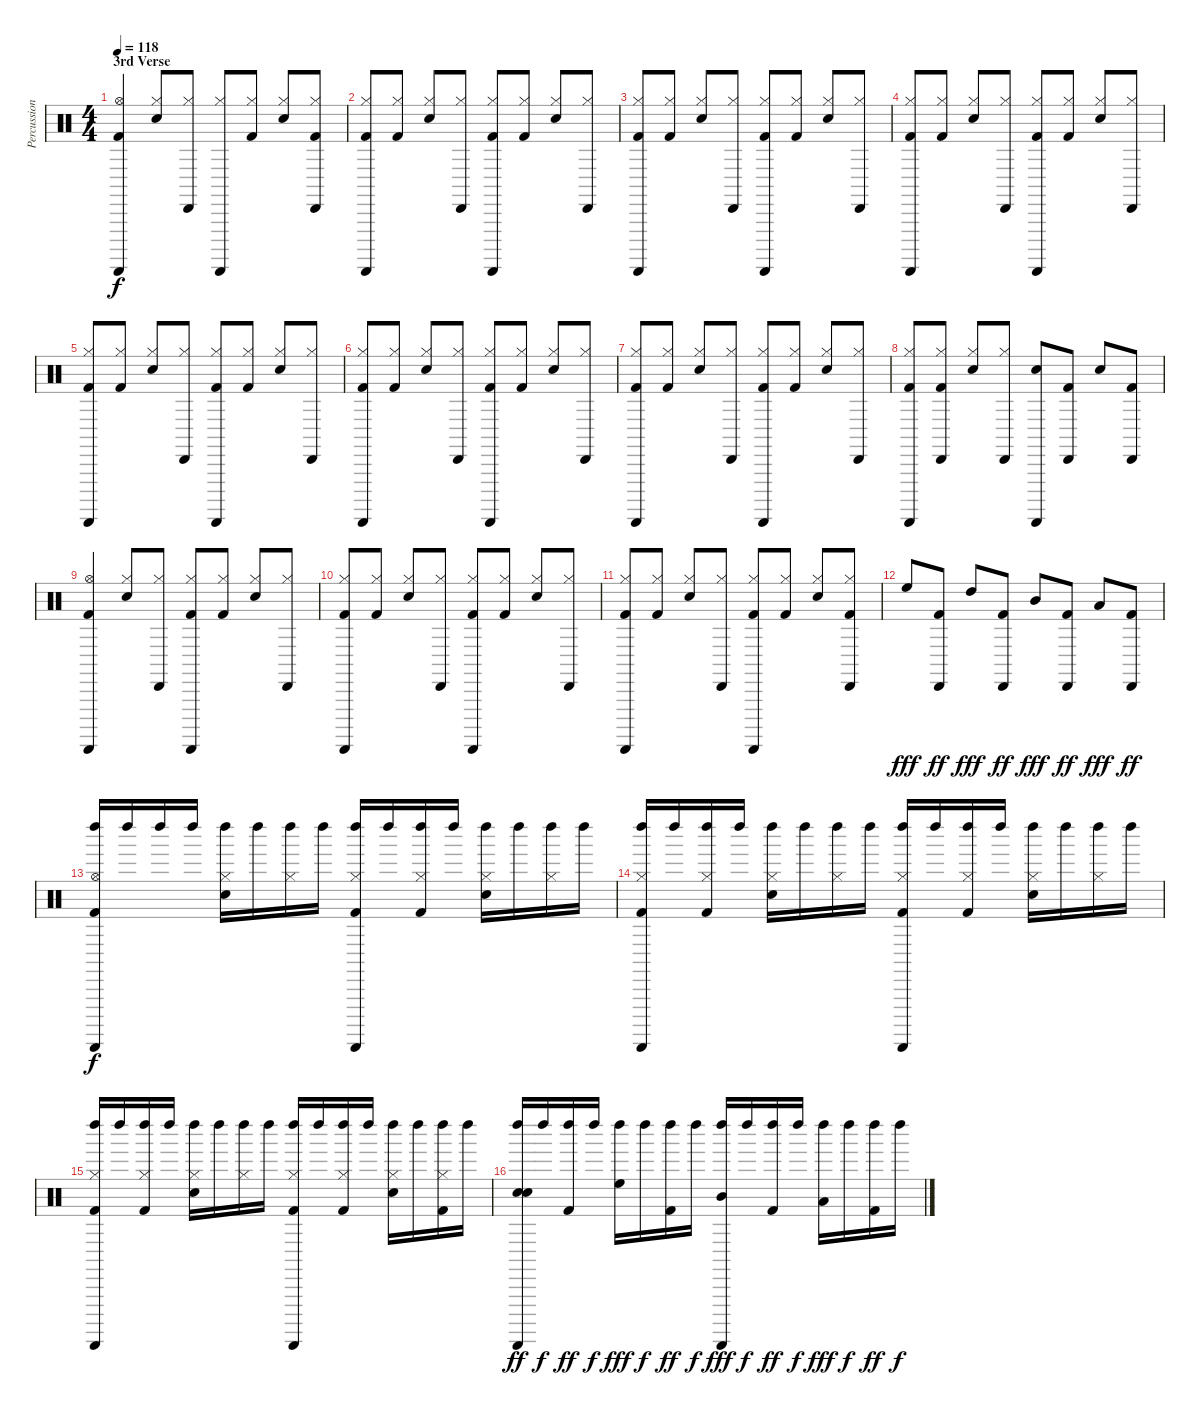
\track ("Percussions" "Percussion") {instrument percussion}
\staff {score}
\articulation defaults
\ts (4 4)
\section ("" "3rd Verse")
\tempo 118
\clef neutral
\ks c
("Guiro (scrap-return)" "Hi-Hat (open)" "Kick (hit) 2").4{dy f} ("Hi-Hat (closed)" "Snare (hit) 2").8 ("Cabasa (hit)" "Hi-Hat (closed)").8 ("Guiro (scrap-return)" "Hi-Hat (closed)").8 ("Hi-Hat (closed)" "Kick (hit) 2").8 ("Hi-Hat (closed)" "Snare (hit) 2").8 ("Cabasa (hit)" "Hi-Hat (closed)" "Kick (hit) 2").8 |
("Guiro (scrap-return)" "Hi-Hat (closed)" "Kick (hit) 2").8 ("Hi-Hat (closed)" "Kick (hit) 2").8 ("Hi-Hat (closed)" "Snare (hit) 2").8 ("Cabasa (hit)" "Hi-Hat (closed)").8 ("Guiro (scrap-return)" "Hi-Hat (closed)" "Kick (hit) 2").8 ("Hi-Hat (closed)" "Kick (hit) 2").8 ("Hi-Hat (closed)" "Snare (hit) 2").8 ("Cabasa (hit)" "Hi-Hat (closed)").8 |
("Guiro (scrap-return)" "Hi-Hat (closed)" "Kick (hit) 2").8 ("Hi-Hat (closed)" "Kick (hit) 2").8 ("Hi-Hat (closed)" "Snare (hit) 2").8 ("Cabasa (hit)" "Hi-Hat (closed)").8 ("Guiro (scrap-return)" "Hi-Hat (closed)" "Kick (hit) 2").8 ("Hi-Hat (closed)" "Kick (hit) 2").8 ("Hi-Hat (closed)" "Snare (hit) 2").8 ("Cabasa (hit)" "Hi-Hat (closed)").8 |
("Guiro (scrap-return)" "Hi-Hat (closed)" "Kick (hit) 2").8 ("Hi-Hat (closed)" "Kick (hit) 2").8 ("Hi-Hat (closed)" "Snare (hit) 2").8 ("Cabasa (hit)" "Hi-Hat (closed)").8 ("Guiro (scrap-return)" "Hi-Hat (closed)" "Kick (hit) 2").8 ("Hi-Hat (closed)" "Kick (hit) 2").8 ("Hi-Hat (closed)" "Snare (hit) 2").8 ("Cabasa (hit)" "Hi-Hat (closed)").8 |
("Guiro (scrap-return)" "Hi-Hat (closed)" "Kick (hit) 2").8 ("Hi-Hat (closed)" "Kick (hit) 2").8 ("Hi-Hat (closed)" "Snare (hit) 2").8 ("Cabasa (hit)" "Hi-Hat (closed)").8 ("Guiro (scrap-return)" "Hi-Hat (closed)" "Kick (hit) 2").8 ("Hi-Hat (closed)" "Kick (hit) 2").8 ("Hi-Hat (closed)" "Snare (hit) 2").8 ("Cabasa (hit)" "Hi-Hat (closed)").8 |
("Guiro (scrap-return)" "Hi-Hat (closed)" "Kick (hit) 2").8 ("Hi-Hat (closed)" "Kick (hit) 2").8 ("Hi-Hat (closed)" "Snare (hit) 2").8 ("Cabasa (hit)" "Hi-Hat (closed)").8 ("Guiro (scrap-return)" "Hi-Hat (closed)" "Kick (hit) 2").8 ("Hi-Hat (closed)" "Kick (hit) 2").8 ("Hi-Hat (closed)" "Snare (hit) 2").8 ("Cabasa (hit)" "Hi-Hat (closed)").8 |
("Guiro (scrap-return)" "Hi-Hat (closed)" "Kick (hit) 2").8 ("Hi-Hat (closed)" "Kick (hit) 2").8 ("Hi-Hat (closed)" "Snare (hit) 2").8 ("Cabasa (hit)" "Hi-Hat (closed)").8 ("Guiro (scrap-return)" "Hi-Hat (closed)" "Kick (hit) 2").8 ("Hi-Hat (closed)" "Kick (hit) 2").8 ("Hi-Hat (closed)" "Snare (hit) 2").8 ("Cabasa (hit)" "Hi-Hat (closed)").8 |
("Guiro (scrap-return)" "Hi-Hat (closed)" "Kick (hit) 2").8 ("Cabasa (hit)" "Hi-Hat (closed)" "Kick (hit) 2").8 ("Hi-Hat (closed)" "Snare (hit) 2").8 ("Cabasa (hit)" "Hi-Hat (closed)").8 ("Guiro (scrap-return)" "Snare (hit) 2").8 ("Cabasa (hit)" "Kick (hit) 2").8 "Snare (hit) 2".8 ("Cabasa (hit)" "Kick (hit) 2").8 |
("Guiro (scrap-return)" "Hi-Hat (open)" "Kick (hit) 2").4 ("Hi-Hat (closed)" "Snare (hit) 2").8 ("Cabasa (hit)" "Hi-Hat (closed)").8 ("Guiro (scrap-return)" "Hi-Hat (closed)" "Kick (hit) 2").8 ("Hi-Hat (closed)" "Kick (hit) 2").8 ("Hi-Hat (closed)" "Snare (hit) 2").8 ("Cabasa (hit)" "Hi-Hat (closed)").8 |
("Guiro (scrap-return)" "Hi-Hat (closed)" "Kick (hit) 2").8 ("Hi-Hat (closed)" "Kick (hit) 2").8 ("Hi-Hat (closed)" "Snare (hit) 2").8 ("Cabasa (hit)" "Hi-Hat (closed)").8 ("Guiro (scrap-return)" "Hi-Hat (closed)" "Kick (hit) 2").8 ("Hi-Hat (closed)" "Kick (hit) 2").8 ("Hi-Hat (closed)" "Snare (hit) 2").8 ("Cabasa (hit)" "Hi-Hat (closed)").8 |
("Guiro (scrap-return)" "Hi-Hat (closed)" "Kick (hit) 2").8 ("Hi-Hat (closed)" "Kick (hit) 2").8 ("Hi-Hat (closed)" "Snare (hit) 2").8 ("Cabasa (hit)" "Hi-Hat (closed)").8 ("Guiro (scrap-return)" "Hi-Hat (closed)" "Kick (hit) 2").8 ("Hi-Hat (closed)" "Kick (hit) 2").8 ("Hi-Hat (closed)" "Snare (hit) 2").8 ("Cabasa (hit)" "Hi-Hat (closed)" "Kick (hit) 2").8 |
"High Floor Tom (hit)".8{dy fff} ("Cabasa (hit)" "Kick (hit) 2").8{dy ff} "High Tom (hit)".8{dy fff} ("Cabasa (hit)" "Kick (hit) 2").8{dy ff} "Mid Tom (hit)".8{dy fff} ("Cabasa (hit)" "Kick (hit) 2").8{dy ff} "Low Tom (hit)".8{dy fff} ("Cabasa (hit)" "Kick (hit) 2").8{dy ff} |
("Guiro (scrap-return)" "Left Maraca (hit)" "Hi-Hat (open)" "Kick (hit) 2").16{dy f} "Left Maraca (hit)".16 "Left Maraca (hit)".16 "Left Maraca (hit)".16 ("Left Maraca (hit)" "Hi-Hat (closed)" "Snare (hit) 2").16 "Left Maraca (hit)".16 ("Left Maraca (hit)" "Hi-Hat (closed)").16 "Left Maraca (hit)".16 ("Guiro (scrap-return)" "Left Maraca (hit)" "Hi-Hat (closed)" "Kick (hit) 2").16 "Left Maraca (hit)".16 ("Left Maraca (hit)" "Hi-Hat (closed)" "Kick (hit) 2").16 "Left Maraca (hit)".16 ("Left Maraca (hit)" "Hi-Hat (closed)" "Snare (hit) 2").16 "Left Maraca (hit)".16 ("Left Maraca (hit)" "Hi-Hat (closed)").16 "Left Maraca (hit)".16 |
("Guiro (scrap-return)" "Left Maraca (hit)" "Hi-Hat (closed)" "Kick (hit) 2").16 "Left Maraca (hit)".16 ("Left Maraca (hit)" "Hi-Hat (closed)" "Kick (hit) 2").16 "Left Maraca (hit)".16 ("Left Maraca (hit)" "Hi-Hat (closed)" "Snare (hit) 2").16 "Left Maraca (hit)".16 ("Left Maraca (hit)" "Hi-Hat (closed)").16 "Left Maraca (hit)".16 ("Guiro (scrap-return)" "Left Maraca (hit)" "Hi-Hat (closed)" "Kick (hit) 2").16 "Left Maraca (hit)".16 ("Left Maraca (hit)" "Hi-Hat (closed)" "Kick (hit) 2").16 "Left Maraca (hit)".16 ("Left Maraca (hit)" "Hi-Hat (closed)" "Snare (hit) 2").16 "Left Maraca (hit)".16 ("Left Maraca (hit)" "Hi-Hat (closed)").16 "Left Maraca (hit)".16 |
("Guiro (scrap-return)" "Left Maraca (hit)" "Hi-Hat (closed)" "Kick (hit) 2").16 "Left Maraca (hit)".16 ("Left Maraca (hit)" "Hi-Hat (closed)" "Kick (hit) 2").16 "Left Maraca (hit)".16 ("Left Maraca (hit)" "Hi-Hat (closed)" "Snare (hit) 2").16 "Left Maraca (hit)".16 ("Left Maraca (hit)" "Hi-Hat (closed)").16 "Left Maraca (hit)".16 ("Guiro (scrap-return)" "Left Maraca (hit)" "Hi-Hat (closed)" "Kick (hit) 2").16 "Left Maraca (hit)".16 ("Left Maraca (hit)" "Hi-Hat (closed)" "Kick (hit) 2").16 "Left Maraca (hit)".16 ("Left Maraca (hit)" "Hi-Hat (closed)" "Snare (hit) 2").16 "Left Maraca (hit)".16 ("Left Maraca (hit)" "Hi-Hat (closed)" "Kick (hit) 2").16 "Left Maraca (hit)".16 |
("Guiro (scrap-return)" "Left Maraca (hit)" "Snare (hit) 2" "Snare (hit) 2").16{dy ff} "Left Maraca (hit)".16{dy f} ("Left Maraca (hit)" "Kick (hit) 2").16{dy ff} "Left Maraca (hit)".16{dy f} ("Left Maraca (hit)" "High Floor Tom (hit)").16{dy fff} "Left Maraca (hit)".16{dy f} ("Left Maraca (hit)" "Kick (hit) 2").16{dy ff} "Left Maraca (hit)".16{dy f} ("Guiro (scrap-return)" "Left Maraca (hit)" "Mid Tom (hit)").16{dy fff} "Left Maraca (hit)".16{dy f} ("Left Maraca (hit)" "Kick (hit) 2").16{dy ff} "Left Maraca (hit)".16{dy f} ("Left Maraca (hit)" "Low Tom (hit)").16{dy fff} "Left Maraca (hit)".16{dy f} ("Left Maraca (hit)" "Kick (hit) 2").16{dy ff} "Left Maraca (hit)".16{dy f}
